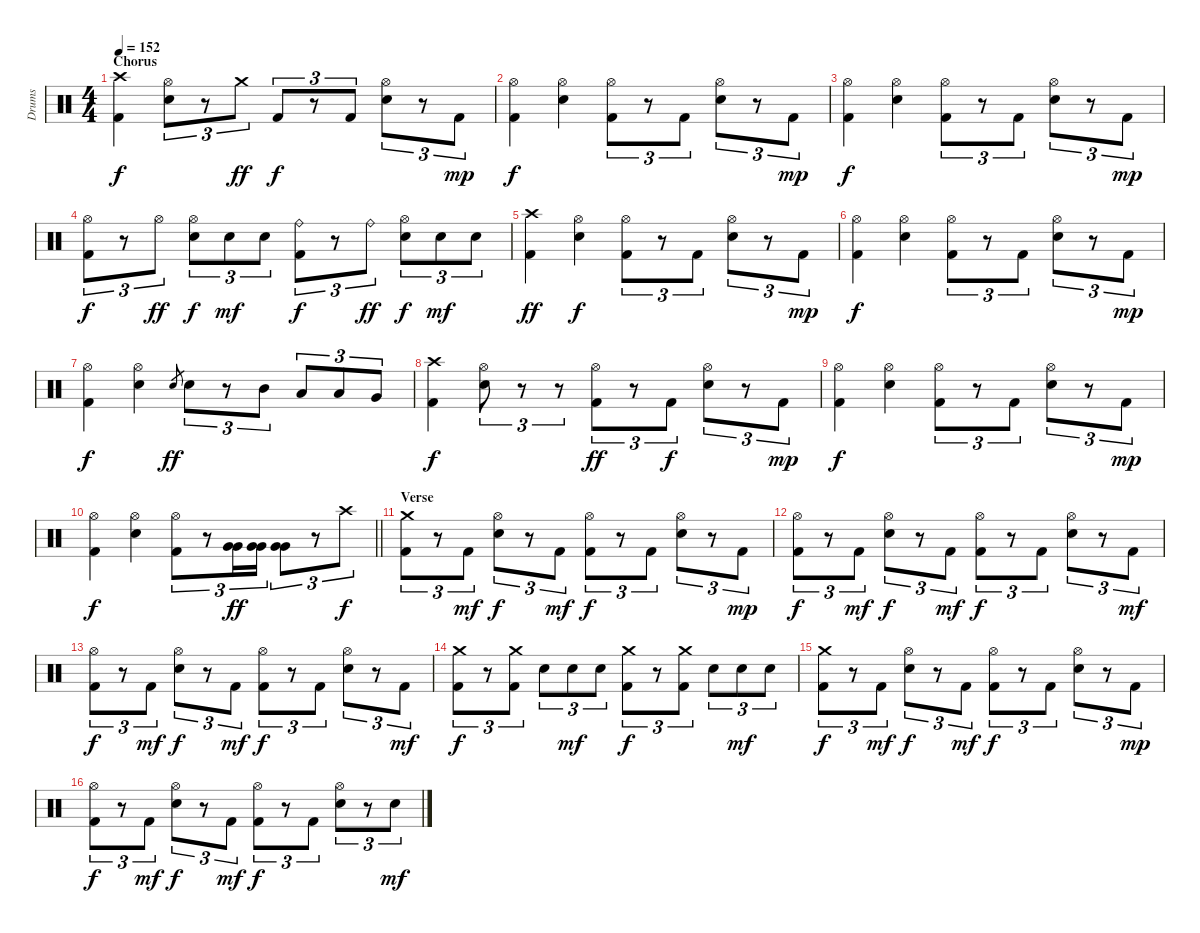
\track ("Drums" "Drums") {instrument percussion}
\staff {score}
\articulation defaults
\ts (4 4)
\section ("" "Chorus")
\tempo 152
\clef neutral
\ks c
("Crash high (hit)" "Kick (hit) 2").4{dy f} ("Hi-Hat (open)" "Snare (hit) 2").8{tu (3 2)} r.8{tu (3 2)} "Crash medium (hit)".8{tu (3 2) dy ff} "Kick (hit) 2".8{tu (3 2) dy f} r.8{tu (3 2)} "Kick (hit) 2".8{tu (3 2)} ("Hi-Hat (open)" "Snare (hit) 2").8{tu (3 2)} r.8{tu (3 2)} "Kick (hit) 2".8{tu (3 2) dy mp} |
("Hi-Hat (open)" "Kick (hit) 2").4{dy f} ("Hi-Hat (open)" "Snare (hit) 2").4 ("Hi-Hat (open)" "Kick (hit) 2").8{tu (3 2)} r.8{tu (3 2)} "Kick (hit) 2".8{tu (3 2)} ("Hi-Hat (open)" "Snare (hit) 2").8{tu (3 2)} r.8{tu (3 2)} "Kick (hit) 2".8{tu (3 2) dy mp} |
("Hi-Hat (open)" "Kick (hit) 2").4{dy f} ("Hi-Hat (open)" "Snare (hit) 2").4 ("Hi-Hat (open)" "Kick (hit) 2").8{tu (3 2)} r.8{tu (3 2)} "Kick (hit) 2".8{tu (3 2)} ("Hi-Hat (open)" "Snare (hit) 2").8{tu (3 2)} r.8{tu (3 2)} "Kick (hit) 2".8{tu (3 2) dy mp} |
("Hi-Hat (open)" "Kick (hit) 2").8{tu (3 2) dy f} r.8{tu (3 2)} "Hi-Hat (open)".8{tu (3 2) dy ff} ("Hi-Hat (open)" "Snare (hit) 2").8{tu (3 2) dy f} "Snare (hit) 2".8{tu (3 2) dy mf} "Snare (hit) 2".8{tu (3 2)} ("Ride (bell)" "Kick (hit) 2").8{tu (3 2) dy f} r.8{tu (3 2)} "Ride (bell)".8{tu (3 2) dy ff} ("Hi-Hat (open)" "Snare (hit) 2").8{tu (3 2) dy f} "Snare (hit) 2".8{tu (3 2) dy mf} "Snare (hit) 2".8{tu (3 2)} |
("Crash high (hit)" "Kick (hit) 2").4{dy ff} ("Hi-Hat (open)" "Snare (hit) 2").4{dy f} ("Hi-Hat (open)" "Kick (hit) 2").8{tu (3 2)} r.8{tu (3 2)} "Kick (hit) 2".8{tu (3 2)} ("Hi-Hat (open)" "Snare (hit) 2").8{tu (3 2)} r.8{tu (3 2)} "Kick (hit) 2".8{tu (3 2) dy mp} |
("Hi-Hat (open)" "Kick (hit) 2").4{dy f} ("Hi-Hat (open)" "Snare (hit) 2").4 ("Hi-Hat (open)" "Kick (hit) 2").8{tu (3 2)} r.8{tu (3 2)} "Kick (hit) 2".8{tu (3 2)} ("Hi-Hat (open)" "Snare (hit) 2").8{tu (3 2)} r.8{tu (3 2)} "Kick (hit) 2".8{tu (3 2) dy mp} |
("Hi-Hat (open)" "Kick (hit) 2").4{dy f} ("Hi-Hat (open)" "Snare (hit) 2").4 "Snare (hit) 2".8{gr dy ff} "Snare (hit) 2".8{tu (3 2)} r.8{tu (3 2)} "Mid Tom (hit)".8{tu (3 2)} "Low Tom (hit)".8{tu (3 2)} "Low Tom (hit)".8{tu (3 2)} "Very Low Tom (hit)".8{tu (3 2)} |
("Crash high (hit)" "Kick (hit) 2").4{dy f} ("Hi-Hat (open)" "Snare (hit) 2").8{tu (3 2)} r.8{tu (3 2)} r.8{tu (3 2)} ("Hi-Hat (open)" "Kick (hit) 2").8{tu (3 2) dy ff} r.8{tu (3 2)} "Kick (hit) 2".8{tu (3 2) dy f} ("Hi-Hat (open)" "Snare (hit) 2").8{tu (3 2)} r.8{tu (3 2)} "Kick (hit) 2".8{tu (3 2) dy mp} |
("Hi-Hat (open)" "Kick (hit) 2").4{dy f} ("Hi-Hat (open)" "Snare (hit) 2").4 ("Hi-Hat (open)" "Kick (hit) 2").8{tu (3 2)} r.8{tu (3 2)} "Kick (hit) 2".8{tu (3 2)} ("Hi-Hat (open)" "Snare (hit) 2").8{tu (3 2)} r.8{tu (3 2)} "Kick (hit) 2".8{tu (3 2) dy mp} |
\barLineRight lightlight
("Hi-Hat (open)" "Kick (hit) 2").4{dy f} ("Hi-Hat (open)" "Snare (hit) 2").4 ("Hi-Hat (open)" "Kick (hit) 2").8{tu (3 2)} r.8{tu (3 2)} ("Very Low Tom (hit)" "Very Low Tom (hit)").16{tu (3 2) dy ff} ("Very Low Tom (hit)" "Very Low Tom (hit)").16{tu (3 2)} ("Very Low Tom (hit)" "Very Low Tom (hit)").8{tu (3 2)} r.8{tu (3 2)} "Crash high (hit)".8{tu (3 2) dy f} |
\section ("" "Verse")
("Crash medium (hit)" "Kick (hit) 2").8{tu (3 2) volume 12} r.8{tu (3 2)} "Kick (hit) 2".8{tu (3 2) dy mf} ("Hi-Hat (open)" "Snare (hit) 2").8{tu (3 2) dy f} r.8{tu (3 2)} "Kick (hit) 2".8{tu (3 2) dy mf} ("Hi-Hat (open)" "Kick (hit) 2").8{tu (3 2) dy f} r.8{tu (3 2)} "Kick (hit) 2".8{tu (3 2)} ("Hi-Hat (open)" "Snare (hit) 2").8{tu (3 2)} r.8{tu (3 2)} "Kick (hit) 2".8{tu (3 2) dy mp} |
("Hi-Hat (open)" "Kick (hit) 2").8{tu (3 2) dy f} r.8{tu (3 2)} "Kick (hit) 2".8{tu (3 2) dy mf} ("Hi-Hat (open)" "Snare (hit) 2").8{tu (3 2) dy f} r.8{tu (3 2)} "Kick (hit) 2".8{tu (3 2) dy mf} ("Hi-Hat (open)" "Kick (hit) 2").8{tu (3 2) dy f} r.8{tu (3 2)} "Kick (hit) 2".8{tu (3 2)} ("Hi-Hat (open)" "Snare (hit) 2").8{tu (3 2)} r.8{tu (3 2)} "Kick (hit) 2".8{tu (3 2) dy mf} |
("Hi-Hat (open)" "Kick (hit) 2").8{tu (3 2) dy f} r.8{tu (3 2)} "Kick (hit) 2".8{tu (3 2) dy mf} ("Hi-Hat (open)" "Snare (hit) 2").8{tu (3 2) dy f} r.8{tu (3 2)} "Kick (hit) 2".8{tu (3 2) dy mf} ("Hi-Hat (open)" "Kick (hit) 2").8{tu (3 2) dy f} r.8{tu (3 2)} "Kick (hit) 2".8{tu (3 2)} ("Hi-Hat (open)" "Snare (hit) 2").8{tu (3 2)} r.8{tu (3 2)} "Kick (hit) 2".8{tu (3 2) dy mf} |
("Crash medium (hit)" "Kick (hit) 2").8{tu (3 2) dy f} r.8{tu (3 2)} ("Crash medium (hit)" "Kick (hit) 2").8{tu (3 2)} "Snare (hit) 2".8{tu (3 2)} "Snare (hit) 2".8{tu (3 2) dy mf} "Snare (hit) 2".8{tu (3 2)} ("Crash medium (hit)" "Kick (hit) 2").8{tu (3 2) dy f} r.8{tu (3 2)} ("Crash medium (hit)" "Kick (hit) 2").8{tu (3 2)} "Snare (hit) 2".8{tu (3 2)} "Snare (hit) 2".8{tu (3 2) dy mf} "Snare (hit) 2".8{tu (3 2)} |
("Crash medium (hit)" "Kick (hit) 2").8{tu (3 2) dy f} r.8{tu (3 2)} "Kick (hit) 2".8{tu (3 2) dy mf} ("Hi-Hat (open)" "Snare (hit) 2").8{tu (3 2) dy f} r.8{tu (3 2)} "Kick (hit) 2".8{tu (3 2) dy mf} ("Hi-Hat (open)" "Kick (hit) 2").8{tu (3 2) dy f} r.8{tu (3 2)} "Kick (hit) 2".8{tu (3 2)} ("Hi-Hat (open)" "Snare (hit) 2").8{tu (3 2)} r.8{tu (3 2)} "Kick (hit) 2".8{tu (3 2) dy mp} |
("Hi-Hat (open)" "Kick (hit) 2").8{tu (3 2) dy f} r.8{tu (3 2)} "Kick (hit) 2".8{tu (3 2) dy mf} ("Hi-Hat (open)" "Snare (hit) 2").8{tu (3 2) dy f} r.8{tu (3 2)} "Kick (hit) 2".8{tu (3 2) dy mf} ("Hi-Hat (open)" "Kick (hit) 2").8{tu (3 2) dy f} r.8{tu (3 2)} "Kick (hit) 2".8{tu (3 2)} ("Hi-Hat (open)" "Snare (hit) 2").8{tu (3 2)} r.8{tu (3 2)} "Snare (hit) 2".8{tu (3 2) dy mf}
